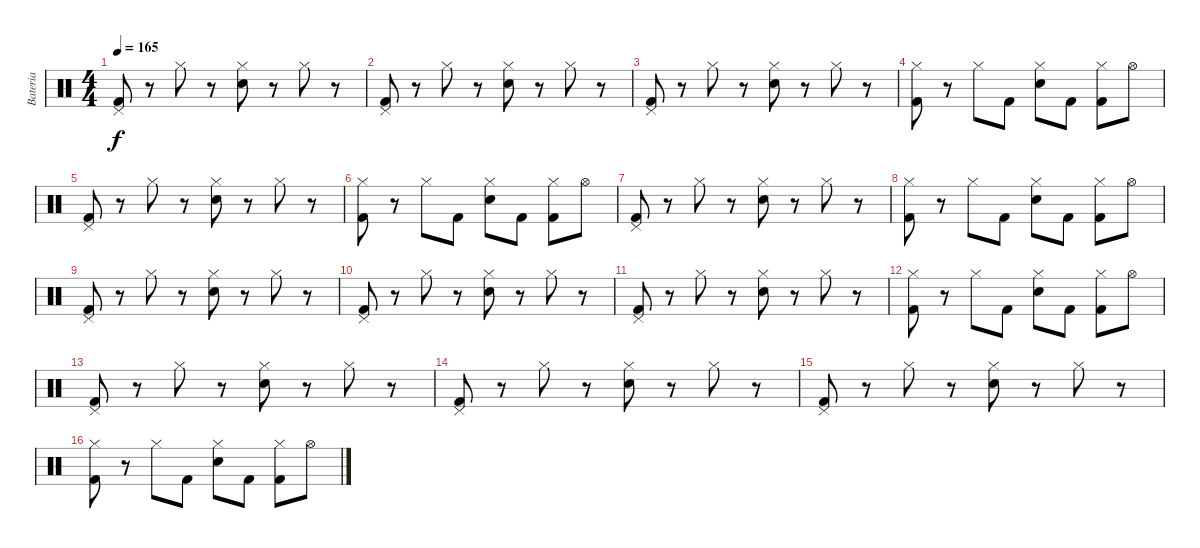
\track ("Bateria" "Bateria") {instrument percussion}
\staff {score}
\articulation defaults
\ts (4 4)
\tempo 165
\clef neutral
\ks c
("Pedal Hi-Hat (hit)" "Kick (hit) 2").8{dy f} r.8 "Hi-Hat (closed)".8 r.8 ("Hi-Hat (closed)" "Snare (hit) 2").8 r.8 "Hi-Hat (closed)".8 r.8 |
("Pedal Hi-Hat (hit)" "Kick (hit) 2").8 r.8 "Hi-Hat (closed)".8 r.8 ("Hi-Hat (closed)" "Snare (hit) 2").8 r.8 "Hi-Hat (closed)".8 r.8 |
("Pedal Hi-Hat (hit)" "Kick (hit) 2").8 r.8 "Hi-Hat (closed)".8 r.8 ("Hi-Hat (closed)" "Snare (hit) 2").8 r.8 "Hi-Hat (closed)".8 r.8 |
("Hi-Hat (closed)" "Kick (hit) 2").8 r.8 "Hi-Hat (closed)".8 "Kick (hit) 2".8 ("Hi-Hat (closed)" "Snare (hit) 2").8 "Kick (hit) 2".8 ("Hi-Hat (closed)" "Kick (hit) 2").8 "Hi-Hat (open)".8 |
("Pedal Hi-Hat (hit)" "Kick (hit) 2").8 r.8 "Hi-Hat (closed)".8 r.8 ("Hi-Hat (closed)" "Snare (hit) 2").8 r.8 "Hi-Hat (closed)".8 r.8 |
("Hi-Hat (closed)" "Kick (hit) 2").8 r.8 "Hi-Hat (closed)".8 "Kick (hit) 2".8 ("Hi-Hat (closed)" "Snare (hit) 2").8 "Kick (hit) 2".8 ("Hi-Hat (closed)" "Kick (hit) 2").8 "Hi-Hat (open)".8 |
("Pedal Hi-Hat (hit)" "Kick (hit) 2").8 r.8 "Hi-Hat (closed)".8 r.8 ("Hi-Hat (closed)" "Snare (hit) 2").8 r.8 "Hi-Hat (closed)".8 r.8 |
("Hi-Hat (closed)" "Kick (hit) 2").8 r.8 "Hi-Hat (closed)".8 "Kick (hit) 2".8 ("Hi-Hat (closed)" "Snare (hit) 2").8 "Kick (hit) 2".8 ("Hi-Hat (closed)" "Kick (hit) 2").8 "Hi-Hat (open)".8 |
("Pedal Hi-Hat (hit)" "Kick (hit) 2").8 r.8 "Hi-Hat (closed)".8 r.8 ("Hi-Hat (closed)" "Snare (hit) 2").8 r.8 "Hi-Hat (closed)".8 r.8 |
("Pedal Hi-Hat (hit)" "Kick (hit) 2").8 r.8 "Hi-Hat (closed)".8 r.8 ("Hi-Hat (closed)" "Snare (hit) 2").8 r.8 "Hi-Hat (closed)".8 r.8 |
("Pedal Hi-Hat (hit)" "Kick (hit) 2").8 r.8 "Hi-Hat (closed)".8 r.8 ("Hi-Hat (closed)" "Snare (hit) 2").8 r.8 "Hi-Hat (closed)".8 r.8 |
("Hi-Hat (closed)" "Kick (hit) 2").8 r.8 "Hi-Hat (closed)".8 "Kick (hit) 2".8 ("Hi-Hat (closed)" "Snare (hit) 2").8 "Kick (hit) 2".8 ("Hi-Hat (closed)" "Kick (hit) 2").8 "Hi-Hat (open)".8 |
("Pedal Hi-Hat (hit)" "Kick (hit) 2").8 r.8 "Hi-Hat (closed)".8 r.8 ("Hi-Hat (closed)" "Snare (hit) 2").8 r.8 "Hi-Hat (closed)".8 r.8 |
("Pedal Hi-Hat (hit)" "Kick (hit) 2").8 r.8 "Hi-Hat (closed)".8 r.8 ("Hi-Hat (closed)" "Snare (hit) 2").8 r.8 "Hi-Hat (closed)".8 r.8 |
("Pedal Hi-Hat (hit)" "Kick (hit) 2").8 r.8 "Hi-Hat (closed)".8 r.8 ("Hi-Hat (closed)" "Snare (hit) 2").8 r.8 "Hi-Hat (closed)".8 r.8 |
("Hi-Hat (closed)" "Kick (hit) 2").8 r.8 "Hi-Hat (closed)".8 "Kick (hit) 2".8 ("Hi-Hat (closed)" "Snare (hit) 2").8 "Kick (hit) 2".8 ("Hi-Hat (closed)" "Kick (hit) 2").8 "Hi-Hat (open)".8
